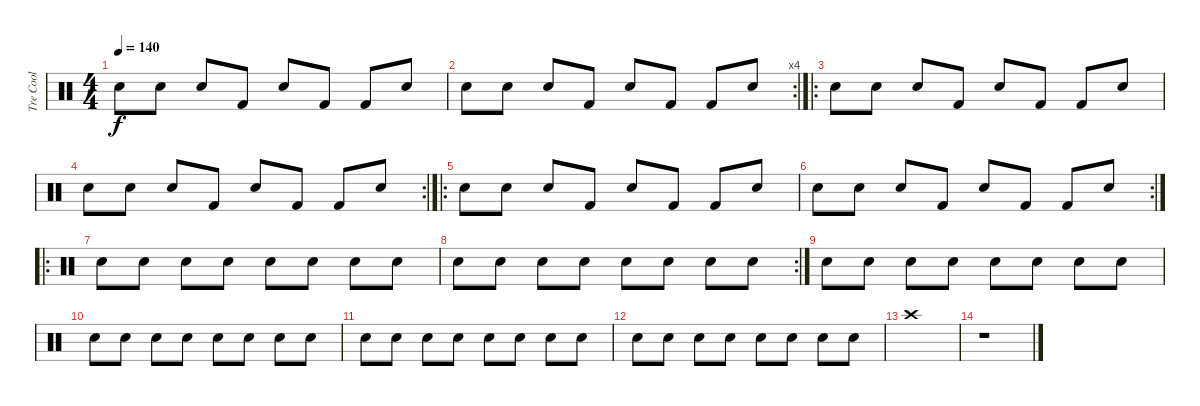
\track ("Tre Cool" "Tre Cool") {instrument percussion}
\staff {score}
\articulation defaults
\ts (4 4)
\tempo 140
\clef neutral
\ks c "Snare (hit) 2".8{dy f} "Snare (hit) 2".8 "Snare (hit) 2".8 "Kick (hit) 2".8 "Snare (hit) 2".8 "Kick (hit) 2".8 "Kick (hit) 2".8 "Snare (hit) 2".8
|
\rc 4 "Snare (hit) 2".8 "Snare (hit) 2".8 "Snare (hit) 2".8 "Kick (hit) 2".8 "Snare (hit) 2".8 "Kick (hit) 2".8 "Kick (hit) 2".8 "Snare (hit) 2".8
|
\ro "Snare (hit) 2".8 "Snare (hit) 2".8 "Snare (hit) 2".8 "Kick (hit) 2".8 "Snare (hit) 2".8 "Kick (hit) 2".8 "Kick (hit) 2".8 "Snare (hit) 2".8
|
\rc 2 "Snare (hit) 2".8 "Snare (hit) 2".8 "Snare (hit) 2".8 "Kick (hit) 2".8 "Snare (hit) 2".8 "Kick (hit) 2".8 "Kick (hit) 2".8 "Snare (hit) 2".8
|
\ro "Snare (hit) 2".8 "Snare (hit) 2".8 "Snare (hit) 2".8 "Kick (hit) 2".8 "Snare (hit) 2".8 "Kick (hit) 2".8 "Kick (hit) 2".8 "Snare (hit) 2".8
|
\rc 2 "Snare (hit) 2".8 "Snare (hit) 2".8 "Snare (hit) 2".8 "Kick (hit) 2".8 "Snare (hit) 2".8 "Kick (hit) 2".8 "Kick (hit) 2".8 "Snare (hit) 2".8
|
\ro "Snare (hit) 2".8 "Snare (hit) 2".8 "Snare (hit) 2".8 "Snare (hit) 2".8 "Snare (hit) 2".8 "Snare (hit) 2".8 "Snare (hit) 2".8 "Snare (hit) 2".8
|
\rc 2 "Snare (hit) 2".8 "Snare (hit) 2".8 "Snare (hit) 2".8 "Snare (hit) 2".8 "Snare (hit) 2".8 "Snare (hit) 2".8 "Snare (hit) 2".8 "Snare (hit) 2".8
|
"Snare (hit) 2".8 "Snare (hit) 2".8 "Snare (hit) 2".8 "Snare (hit) 2".8 "Snare (hit) 2".8 "Snare (hit) 2".8 "Snare (hit) 2".8 "Snare (hit) 2".8 |
"Snare (hit) 2".8 "Snare (hit) 2".8 "Snare (hit) 2".8 "Snare (hit) 2".8 "Snare (hit) 2".8 "Snare (hit) 2".8 "Snare (hit) 2".8 "Snare (hit) 2".8 |
"Snare (hit) 2".8 "Snare (hit) 2".8 "Snare (hit) 2".8 "Snare (hit) 2".8 "Snare (hit) 2".8 "Snare (hit) 2".8 "Snare (hit) 2".8 "Snare (hit) 2".8 |
"Snare (hit) 2".8 "Snare (hit) 2".8 "Snare (hit) 2".8 "Snare (hit) 2".8 "Snare (hit) 2".8 "Snare (hit) 2".8 "Snare (hit) 2".8 "Snare (hit) 2".8 |
"Crash high (hit)".1 |
r.1
